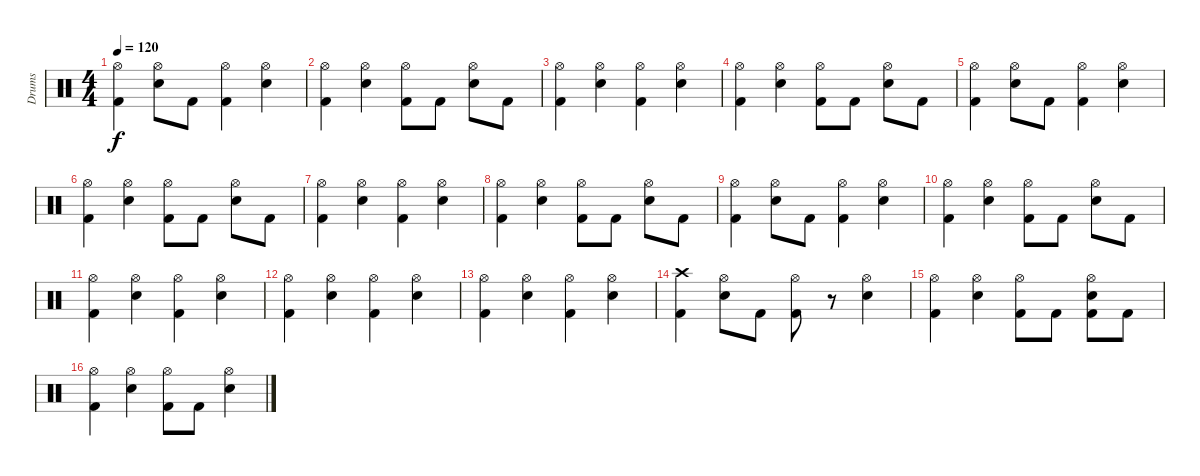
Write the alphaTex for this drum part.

\track ("Drums" "Drums") {instrument percussion}
\staff {score}
\articulation defaults
\ts (4 4)
\tempo 120
\clef neutral
\ks c
("Hi-Hat (open)" "Kick (hit) 2").4{dy f} ("Hi-Hat (open)" "Electric Snare (hit)").8 "Kick (hit) 2".8 ("Hi-Hat (open)" "Kick (hit) 2").4 ("Hi-Hat (open)" "Electric Snare (hit)").4 |
("Hi-Hat (open)" "Kick (hit) 2").4 ("Hi-Hat (open)" "Electric Snare (hit)").4 ("Hi-Hat (open)" "Kick (hit) 2").8 "Kick (hit) 2".8 ("Hi-Hat (open)" "Electric Snare (hit)").8 "Kick (hit) 2".8 |
("Hi-Hat (open)" "Kick (hit) 2").4 ("Hi-Hat (open)" "Electric Snare (hit)").4 ("Hi-Hat (open)" "Kick (hit) 2").4 ("Hi-Hat (open)" "Electric Snare (hit)").4 |
("Hi-Hat (open)" "Kick (hit) 2").4 ("Hi-Hat (open)" "Electric Snare (hit)").4 ("Hi-Hat (open)" "Kick (hit) 2").8 "Kick (hit) 2".8 ("Hi-Hat (open)" "Electric Snare (hit)").8 "Kick (hit) 2".8 |
("Hi-Hat (open)" "Kick (hit) 2").4 ("Hi-Hat (open)" "Electric Snare (hit)").8 "Kick (hit) 2".8 ("Hi-Hat (open)" "Kick (hit) 2").4 ("Hi-Hat (open)" "Electric Snare (hit)").4 |
("Hi-Hat (open)" "Kick (hit) 2").4 ("Hi-Hat (open)" "Electric Snare (hit)").4 ("Hi-Hat (open)" "Kick (hit) 2").8 "Kick (hit) 2".8 ("Hi-Hat (open)" "Electric Snare (hit)").8 "Kick (hit) 2".8 |
("Hi-Hat (open)" "Kick (hit) 2").4 ("Hi-Hat (open)" "Electric Snare (hit)").4 ("Hi-Hat (open)" "Kick (hit) 2").4 ("Hi-Hat (open)" "Electric Snare (hit)").4 |
("Hi-Hat (open)" "Kick (hit) 2").4 ("Hi-Hat (open)" "Electric Snare (hit)").4 ("Hi-Hat (open)" "Kick (hit) 2").8 "Kick (hit) 2".8 ("Hi-Hat (open)" "Electric Snare (hit)").8 "Kick (hit) 2".8 |
("Hi-Hat (open)" "Kick (hit) 2").4 ("Hi-Hat (open)" "Electric Snare (hit)").8 "Kick (hit) 2".8 ("Hi-Hat (open)" "Kick (hit) 2").4 ("Hi-Hat (open)" "Electric Snare (hit)").4 |
("Hi-Hat (open)" "Kick (hit) 2").4 ("Hi-Hat (open)" "Electric Snare (hit)").4 ("Hi-Hat (open)" "Kick (hit) 2").8 "Kick (hit) 2".8 ("Hi-Hat (open)" "Electric Snare (hit)").8 "Kick (hit) 2".8 |
("Hi-Hat (open)" "Kick (hit) 2").4 ("Hi-Hat (open)" "Electric Snare (hit)").4 ("Hi-Hat (open)" "Kick (hit) 2").4 ("Hi-Hat (open)" "Electric Snare (hit)").4 |
("Hi-Hat (open)" "Kick (hit) 2").4 ("Hi-Hat (open)" "Electric Snare (hit)").4 ("Hi-Hat (open)" "Kick (hit) 2").4 ("Hi-Hat (open)" "Electric Snare (hit)").4 |
("Hi-Hat (open)" "Kick (hit) 2").4 ("Hi-Hat (open)" "Electric Snare (hit)").4 ("Hi-Hat (open)" "Kick (hit) 2").4 ("Hi-Hat (open)" "Electric Snare (hit)").4 |
("Crash high (hit)" "Kick (hit) 2").4 ("Hi-Hat (open)" "Electric Snare (hit)").8 "Kick (hit) 2".8 ("Hi-Hat (open)" "Kick (hit) 2").8 r.8 ("Hi-Hat (open)" "Electric Snare (hit)").4 |
("Hi-Hat (open)" "Kick (hit) 2").4 ("Hi-Hat (open)" "Electric Snare (hit)").4 ("Hi-Hat (open)" "Kick (hit) 2").8 "Kick (hit) 2".8 ("Hi-Hat (open)" "Electric Snare (hit)" "Kick (hit) 2").8 "Kick (hit) 2".8 |
("Hi-Hat (open)" "Kick (hit) 2").4 ("Hi-Hat (open)" "Electric Snare (hit)").4 ("Hi-Hat (open)" "Kick (hit) 2").8 "Kick (hit) 2".8 ("Hi-Hat (open)" "Electric Snare (hit)").4
